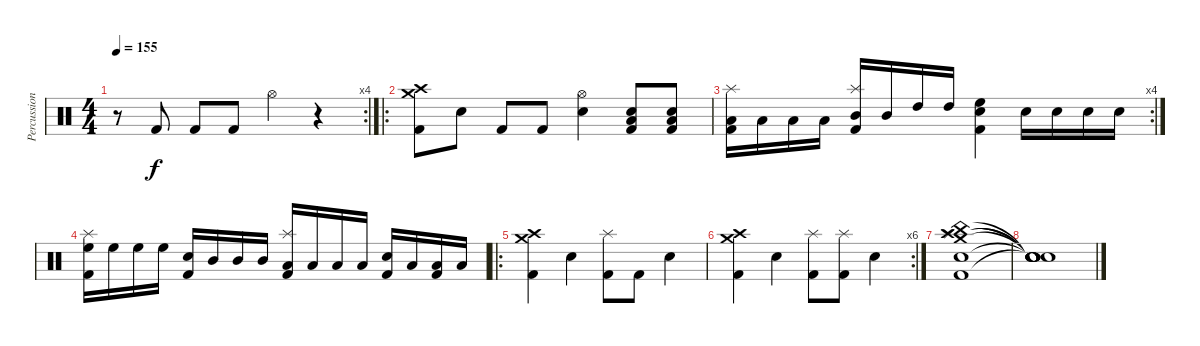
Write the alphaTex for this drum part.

\track ("Percussion" "Percussion") {instrument percussion}
\staff {score}
\articulation defaults
\rc 4
\ts (4 4)
\tempo 155
\clef neutral
\ks c
r.8{dy f} "Kick (hit) 2".8 "Kick (hit) 2".8 "Kick (hit) 2".8 "Hi-Hat (open)".4 r.4 |
\ro
("Crash medium (hit)" "Crash high (hit)" "Kick (hit) 2").8 "Electric Snare (hit)".8 "Kick (hit) 2".8 "Kick (hit) 2".8 ("Hi-Hat (open)" "Electric Snare (hit)").4 ("Low Floor Tom (hit)" "Electric Snare (hit)" "Kick (hit) 2").8 ("Low Floor Tom (hit)" "Electric Snare (hit)" "Kick (hit) 2").8 |
\rc 4
("Splash (hit)" "Low Floor Tom (hit)" "Kick (hit) 2").16 "Low Floor Tom (hit)".16 "Low Tom (hit)".16 "Low Tom (hit)".16 ("Splash (hit)" "Mid Tom (hit)" "Kick (hit) 2").16 "Mid Tom (hit)".16 "High Tom (hit)".16 "High Tom (hit)".16 ("High Floor Tom (hit)" "Electric Snare (hit)" "Kick (hit) 2").4 "Electric Snare (hit)".16 "Electric Snare (hit)".16 "Electric Snare (hit)".16 "Electric Snare (hit)".16 |
("High Floor Tom (hit)" "Splash (hit)" "Kick (hit) 2").16 "High Floor Tom (hit)".16 "High Floor Tom (hit)".16 "High Floor Tom (hit)".16 ("Electric Snare (hit)" "Kick (hit) 2").16 "Mid Tom (hit)".16 "Mid Tom (hit)".16 "Mid Tom (hit)".16 ("Low Tom (hit)" "Splash (hit)" "Kick (hit) 2").16 "Low Tom (hit)".16 "Low Tom (hit)".16 "Low Tom (hit)".16 ("Electric Snare (hit)" "Kick (hit) 2").16 "Low Floor Tom (hit)".16 ("Low Floor Tom (hit)" "Kick (hit) 2").16 "Low Floor Tom (hit)".16 |
\ro
("Crash high (hit)" "Crash medium (hit)" "Kick (hit) 2").4 "Electric Snare (hit)".4 ("Splash (hit)" "Kick (hit) 2").8 "Kick (hit) 2".8 "Electric Snare (hit)".4 |
\rc 6
("Crash high (hit)" "Crash medium (hit)" "Kick (hit) 2").4 "Electric Snare (hit)".4 ("Splash (hit)" "Kick (hit) 2").8 ("Splash (hit)" "Kick (hit) 2").8 "Electric Snare (hit)".4 |
("Crash medium (hit)" "Crash high (hit)" "Splash (hit)" "China (hit)" "Electric Snare (hit)" "Kick (hit) 2").1 |
("Snare (hit)"{t} "Snare (hit)"{t} "Snare (hit)"{t} "Snare (hit)"{t} "Snare (hit)"{t} "Snare (hit)"{t}).1
